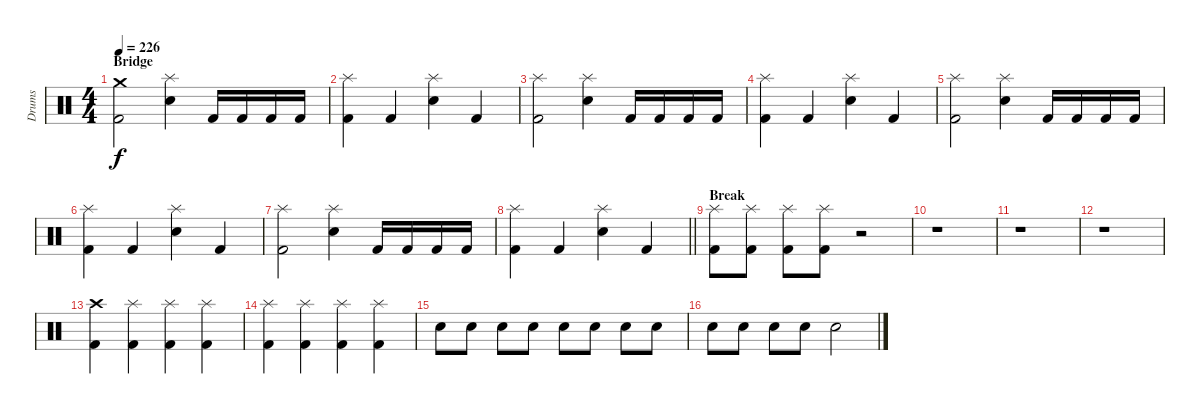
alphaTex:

\track ("Drums" "Drums") {instrument percussion}
\staff {score}
\articulation defaults
\ts (4 4)
\section ("" "Bridge")
\tempo 226
\clef neutral
\ks c
("Crash medium (hit)" "Kick (hit) 2").2{dy f} ("Splash (hit)" "Snare (hit) 2").4 "Kick (hit) 2".16 "Kick (hit) 2".16 "Kick (hit) 2".16 "Kick (hit) 2".16 |
("Splash (hit)" "Kick (hit) 2").4 "Kick (hit) 2".4 ("Splash (hit)" "Snare (hit) 2").4 "Kick (hit) 2".4 |
("Splash (hit)" "Kick (hit) 2").2 ("Splash (hit)" "Snare (hit) 2").4 "Kick (hit) 2".16 "Kick (hit) 2".16 "Kick (hit) 2".16 "Kick (hit) 2".16 |
("Splash (hit)" "Kick (hit) 2").4 "Kick (hit) 2".4 ("Splash (hit)" "Snare (hit) 2").4 "Kick (hit) 2".4 |
("Splash (hit)" "Kick (hit) 2").2 ("Splash (hit)" "Snare (hit) 2").4 "Kick (hit) 2".16 "Kick (hit) 2".16 "Kick (hit) 2".16 "Kick (hit) 2".16 |
("Splash (hit)" "Kick (hit) 2").4 "Kick (hit) 2".4 ("Splash (hit)" "Snare (hit) 2").4 "Kick (hit) 2".4 |
("Splash (hit)" "Kick (hit) 2").2 ("Splash (hit)" "Snare (hit) 2").4 "Kick (hit) 2".16 "Kick (hit) 2".16 "Kick (hit) 2".16 "Kick (hit) 2".16 |
\barLineRight lightlight
("Splash (hit)" "Kick (hit) 2").4 "Kick (hit) 2".4 ("Splash (hit)" "Snare (hit) 2").4 "Kick (hit) 2".4 |
\section ("" "Break")
("Splash (hit)" "Kick (hit) 2").8 ("Splash (hit)" "Kick (hit) 2").8 ("Splash (hit)" "Kick (hit) 2").8 ("Splash (hit)" "Kick (hit) 2").8 r.2 |
r.1 |
r.1 |
r.1 |
("Crash high (hit)" "Kick (hit) 2").4 ("Splash (hit)" "Kick (hit) 2").4 ("Splash (hit)" "Kick (hit) 2").4 ("Splash (hit)" "Kick (hit) 2").4 |
("Splash (hit)" "Kick (hit) 2").4 ("Splash (hit)" "Kick (hit) 2").4 ("Splash (hit)" "Kick (hit) 2").4 ("Splash (hit)" "Kick (hit) 2").4 |
"Snare (hit) 2".8 "Snare (hit) 2".8 "Snare (hit) 2".8 "Snare (hit) 2".8 "Snare (hit) 2".8 "Snare (hit) 2".8 "Snare (hit) 2".8 "Snare (hit) 2".8 |
"Snare (hit) 2".8 "Snare (hit) 2".8 "Snare (hit) 2".8 "Snare (hit) 2".8 "Snare (hit) 2".2
